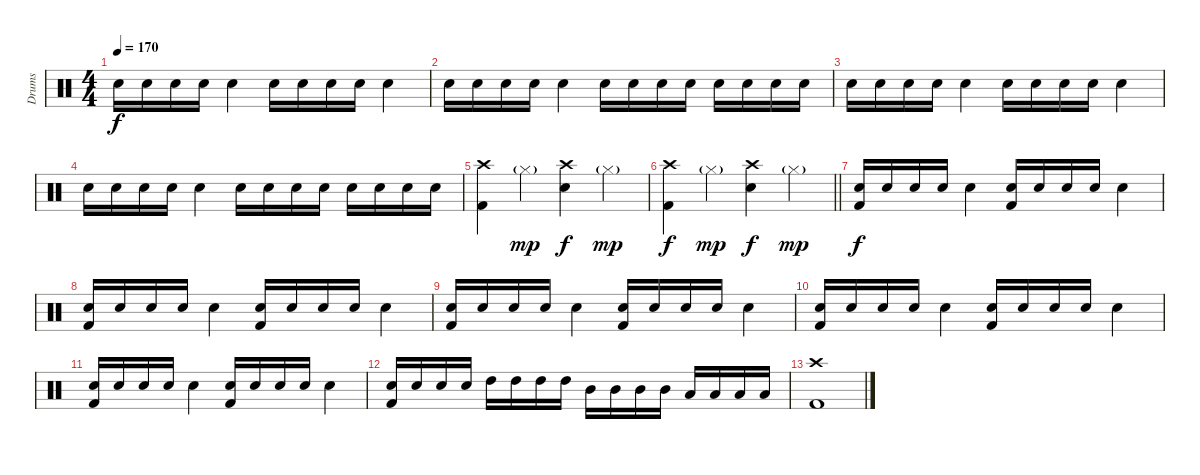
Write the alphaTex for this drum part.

\track ("Drums" "Drums") {instrument percussion}
\staff {score}
\articulation defaults
\ts (4 4)
\tempo 170
\clef neutral
\ks c "Electric Snare (hit)".16{dy f} "Electric Snare (hit)".16 "Electric Snare (hit)".16 "Electric Snare (hit)".16 "Electric Snare (hit)".4 "Electric Snare (hit)".16 "Electric Snare (hit)".16 "Electric Snare (hit)".16 "Electric Snare (hit)".16 "Electric Snare (hit)".4
|
"Electric Snare (hit)".16 "Electric Snare (hit)".16 "Electric Snare (hit)".16 "Electric Snare (hit)".16 "Electric Snare (hit)".4 "Electric Snare (hit)".16 "Electric Snare (hit)".16 "Electric Snare (hit)".16 "Electric Snare (hit)".16 "Electric Snare (hit)".16 "Electric Snare (hit)".16 "Electric Snare (hit)".16 "Electric Snare (hit)".16 |
"Electric Snare (hit)".16 "Electric Snare (hit)".16 "Electric Snare (hit)".16 "Electric Snare (hit)".16 "Electric Snare (hit)".4 "Electric Snare (hit)".16 "Electric Snare (hit)".16 "Electric Snare (hit)".16 "Electric Snare (hit)".16 "Electric Snare (hit)".4 |
"Electric Snare (hit)".16 "Electric Snare (hit)".16 "Electric Snare (hit)".16 "Electric Snare (hit)".16 "Electric Snare (hit)".4 "Electric Snare (hit)".16 "Electric Snare (hit)".16 "Electric Snare (hit)".16 "Electric Snare (hit)".16 "Electric Snare (hit)".16 "Electric Snare (hit)".16 "Electric Snare (hit)".16 "Electric Snare (hit)".16 |
("Crash high (hit)" "Kick (hit) 2").4 "Hi-Hat (closed)"{g}.4{dy mp} ("Crash high (hit)" "Electric Snare (hit)").4{dy f} "Hi-Hat (closed)"{g}.4{dy mp} |
\barLineRight lightlight
("Crash high (hit)" "Kick (hit) 2").4{dy f} "Hi-Hat (closed)"{g}.4{dy mp} ("Crash high (hit)" "Electric Snare (hit)").4{dy f} "Hi-Hat (closed)"{g}.4{dy mp} |
\section ("" "")
("Electric Snare (hit)" "Kick (hit) 2").16{dy f} "Electric Snare (hit)".16 "Electric Snare (hit)".16 "Electric Snare (hit)".16 "Electric Snare (hit)".4 ("Electric Snare (hit)" "Kick (hit) 2").16 "Electric Snare (hit)".16 "Electric Snare (hit)".16 "Electric Snare (hit)".16 "Electric Snare (hit)".4 |
("Electric Snare (hit)" "Kick (hit) 2").16 "Electric Snare (hit)".16 "Electric Snare (hit)".16 "Electric Snare (hit)".16 "Electric Snare (hit)".4 ("Electric Snare (hit)" "Kick (hit) 2").16 "Electric Snare (hit)".16 "Electric Snare (hit)".16 "Electric Snare (hit)".16 "Electric Snare (hit)".4 |
("Electric Snare (hit)" "Kick (hit) 2").16 "Electric Snare (hit)".16 "Electric Snare (hit)".16 "Electric Snare (hit)".16 "Electric Snare (hit)".4 ("Electric Snare (hit)" "Kick (hit) 2").16 "Electric Snare (hit)".16 "Electric Snare (hit)".16 "Electric Snare (hit)".16 "Electric Snare (hit)".4 |
("Electric Snare (hit)" "Kick (hit) 2").16 "Electric Snare (hit)".16 "Electric Snare (hit)".16 "Electric Snare (hit)".16 "Electric Snare (hit)".4 ("Electric Snare (hit)" "Kick (hit) 2").16 "Electric Snare (hit)".16 "Electric Snare (hit)".16 "Electric Snare (hit)".16 "Electric Snare (hit)".4 |
("Electric Snare (hit)" "Kick (hit) 2").16 "Electric Snare (hit)".16 "Electric Snare (hit)".16 "Electric Snare (hit)".16 "Electric Snare (hit)".4 ("Electric Snare (hit)" "Kick (hit) 2").16 "Electric Snare (hit)".16 "Electric Snare (hit)".16 "Electric Snare (hit)".16 "Electric Snare (hit)".4 |
("Electric Snare (hit)" "Kick (hit) 2").16 "Electric Snare (hit)".16 "Electric Snare (hit)".16 "Electric Snare (hit)".16 "High Tom (hit)".16 "High Tom (hit)".16 "High Tom (hit)".16 "High Tom (hit)".16 "Mid Tom (hit)".16 "Mid Tom (hit)".16 "Mid Tom (hit)".16 "Mid Tom (hit)".16 "Low Tom (hit)".16 "Low Tom (hit)".16 "Low Tom (hit)".16 "Low Tom (hit)".16 |
("Crash high (hit)" "Kick (hit) 2").1
